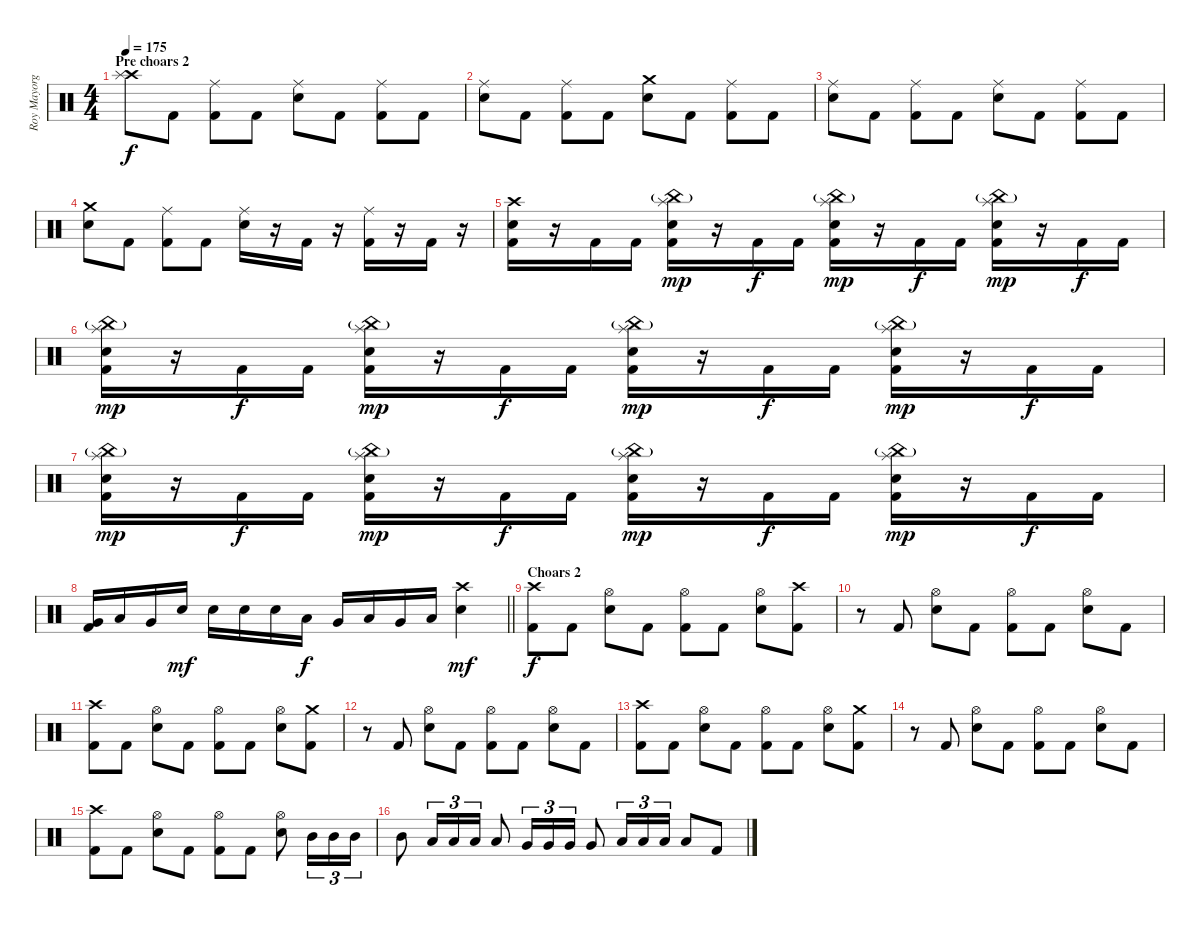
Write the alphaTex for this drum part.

\track ("Roy Mayorga" "Roy Mayorg") {instrument percussion}
\staff {score}
\articulation defaults
\ts (4 4)
\section ("" "Pre choars 2")
\tempo 175
\clef neutral
\ks c
("Crash high (hit)" "Splash (hit)").8{dy f} "Kick (hit) 2".8 ("Ride (middle)" "Kick (hit) 2").8 "Kick (hit) 2".8 ("Ride (middle)" "Electric Snare (hit)").8 "Kick (hit) 2".8 ("Ride (middle)" "Kick (hit) 2").8 "Kick (hit) 2".8 |
("Ride (middle)" "Electric Snare (hit)").8 "Kick (hit) 2".8 ("Ride (middle)" "Kick (hit) 2").8 "Kick (hit) 2".8 ("Crash medium (hit)" "Electric Snare (hit)").8 "Kick (hit) 2".8 ("Ride (middle)" "Kick (hit) 2").8 "Kick (hit) 2".8 |
("Ride (middle)" "Electric Snare (hit)").8 "Kick (hit) 2".8 ("Ride (middle)" "Kick (hit) 2").8 "Kick (hit) 2".8 ("Ride (middle)" "Electric Snare (hit)").8 "Kick (hit) 2".8 ("Ride (middle)" "Kick (hit) 2").8 "Kick (hit) 2".8 |
("Crash medium (hit)" "Electric Snare (hit)").8 "Kick (hit) 2".8 ("Ride (middle)" "Kick (hit) 2").8 "Kick (hit) 2".8 ("Ride (middle)" "Electric Snare (hit)").16 r.16 "Kick (hit) 2".16 r.16 ("Ride (middle)" "Kick (hit) 2").16 r.16 "Kick (hit) 2".16 r.16 |
("Crash high (hit)" "Electric Snare (hit)" "Kick (hit) 2").16 r.16 "Kick (hit) 2".16 "Kick (hit) 2".16 ("China (hit)"{g} "Splash (hit)" "Electric Snare (hit)" "Kick (hit) 2").16{dy mp} r.16 "Kick (hit) 2".16{dy f} "Kick (hit) 2".16 ("China (hit)"{g} "Splash (hit)" "Electric Snare (hit)" "Kick (hit) 2").16{dy mp} r.16 "Kick (hit) 2".16{dy f} "Kick (hit) 2".16 ("China (hit)"{g} "Splash (hit)" "Electric Snare (hit)" "Kick (hit) 2").16{dy mp} r.16 "Kick (hit) 2".16{dy f} "Kick (hit) 2".16 |
("China (hit)"{g} "Splash (hit)" "Electric Snare (hit)" "Kick (hit) 2").16{dy mp} r.16 "Kick (hit) 2".16{dy f} "Kick (hit) 2".16 ("China (hit)"{g} "Splash (hit)" "Electric Snare (hit)" "Kick (hit) 2").16{dy mp} r.16 "Kick (hit) 2".16{dy f} "Kick (hit) 2".16 ("China (hit)"{g} "Splash (hit)" "Electric Snare (hit)" "Kick (hit) 2").16{dy mp} r.16 "Kick (hit) 2".16{dy f} "Kick (hit) 2".16 ("China (hit)"{g} "Splash (hit)" "Electric Snare (hit)" "Kick (hit) 2").16{dy mp} r.16 "Kick (hit) 2".16{dy f} "Kick (hit) 2".16 |
("China (hit)"{g} "Splash (hit)" "Electric Snare (hit)" "Kick (hit) 2").16{dy mp} r.16 "Kick (hit) 2".16{dy f} "Kick (hit) 2".16 ("China (hit)"{g} "Splash (hit)" "Electric Snare (hit)" "Kick (hit) 2").16{dy mp} r.16 "Kick (hit) 2".16{dy f} "Kick (hit) 2".16 ("China (hit)"{g} "Splash (hit)" "Electric Snare (hit)" "Kick (hit) 2").16{dy mp} r.16 "Kick (hit) 2".16{dy f} "Kick (hit) 2".16 ("China (hit)"{g} "Splash (hit)" "Electric Snare (hit)" "Kick (hit) 2").16{dy mp} r.16 "Kick (hit) 2".16{dy f} "Kick (hit) 2".16 |
\barLineRight lightlight
("Very Low Tom (hit)" "Kick (hit) 2").16 "Low Tom (hit)".16 "Very Low Tom (hit)".16 "Electric Snare (hit)".16{dy mf} "Electric Snare (hit)".16 "Electric Snare (hit)".16 "Electric Snare (hit)".16 "Low Tom (hit)".16{dy f} "Very Low Tom (hit)".16 "Low Tom (hit)".16 "Very Low Tom (hit)".16 "Low Floor Tom (hit)".16 ("Crash high (hit)" "Electric Snare (hit)").4{dy mf} |
\section ("" "Choars 2")
("Crash high (hit)" "Kick (hit) 2").8{dy f} "Kick (hit) 2".8 ("Hi-Hat (open)" "Electric Snare (hit)").8 "Kick (hit) 2".8 ("Hi-Hat (open)" "Kick (hit) 2").8 "Kick (hit) 2".8 ("Hi-Hat (open)" "Electric Snare (hit)").8 ("Crash high (hit)" "Kick (hit) 2").8 |
r.8 "Kick (hit) 2".8 ("Hi-Hat (open)" "Electric Snare (hit)").8 "Kick (hit) 2".8 ("Hi-Hat (open)" "Kick (hit) 2").8 "Kick (hit) 2".8 ("Hi-Hat (open)" "Electric Snare (hit)").8 "Kick (hit) 2".8 |
("Crash high (hit)" "Kick (hit) 2").8 "Kick (hit) 2".8 ("Hi-Hat (open)" "Electric Snare (hit)").8 "Kick (hit) 2".8 ("Hi-Hat (open)" "Kick (hit) 2").8 "Kick (hit) 2".8 ("Hi-Hat (open)" "Electric Snare (hit)").8 ("Crash medium (hit)" "Kick (hit) 2").8 |
r.8 "Kick (hit) 2".8 ("Hi-Hat (open)" "Electric Snare (hit)").8 "Kick (hit) 2".8 ("Hi-Hat (open)" "Kick (hit) 2").8 "Kick (hit) 2".8 ("Hi-Hat (open)" "Electric Snare (hit)").8 "Kick (hit) 2".8 |
("Crash high (hit)" "Kick (hit) 2").8 "Kick (hit) 2".8 ("Hi-Hat (open)" "Electric Snare (hit)").8 "Kick (hit) 2".8 ("Hi-Hat (open)" "Kick (hit) 2").8 "Kick (hit) 2".8 ("Hi-Hat (open)" "Electric Snare (hit)").8 ("Crash medium (hit)" "Kick (hit) 2").8 |
r.8 "Kick (hit) 2".8 ("Hi-Hat (open)" "Electric Snare (hit)").8 "Kick (hit) 2".8 ("Hi-Hat (open)" "Kick (hit) 2").8 "Kick (hit) 2".8 ("Hi-Hat (open)" "Electric Snare (hit)").8 "Kick (hit) 2".8 |
("Crash high (hit)" "Kick (hit) 2").8 "Kick (hit) 2".8 ("Hi-Hat (open)" "Electric Snare (hit)").8 "Kick (hit) 2".8 ("Hi-Hat (open)" "Kick (hit) 2").8 "Kick (hit) 2".8 ("Hi-Hat (open)" "Electric Snare (hit)").8 "Mid Tom (hit)".16{tu (3 2)} "Mid Tom (hit)".16{tu (3 2)} "Mid Tom (hit)".16{tu (3 2)} |
"Mid Tom (hit)".8 "Low Tom (hit)".16{tu (3 2)} "Low Tom (hit)".16{tu (3 2)} "Low Tom (hit)".16{tu (3 2)} "Low Tom (hit)".8 "Very Low Tom (hit)".16{tu (3 2)} "Very Low Tom (hit)".16{tu (3 2)} "Very Low Tom (hit)".16{tu (3 2)} "Very Low Tom (hit)".8 "Low Floor Tom (hit)".16{tu (3 2)} "Low Floor Tom (hit)".16{tu (3 2)} "Low Floor Tom (hit)".16{tu (3 2)} "Low Floor Tom (hit)".8 "Kick (hit) 2".8
